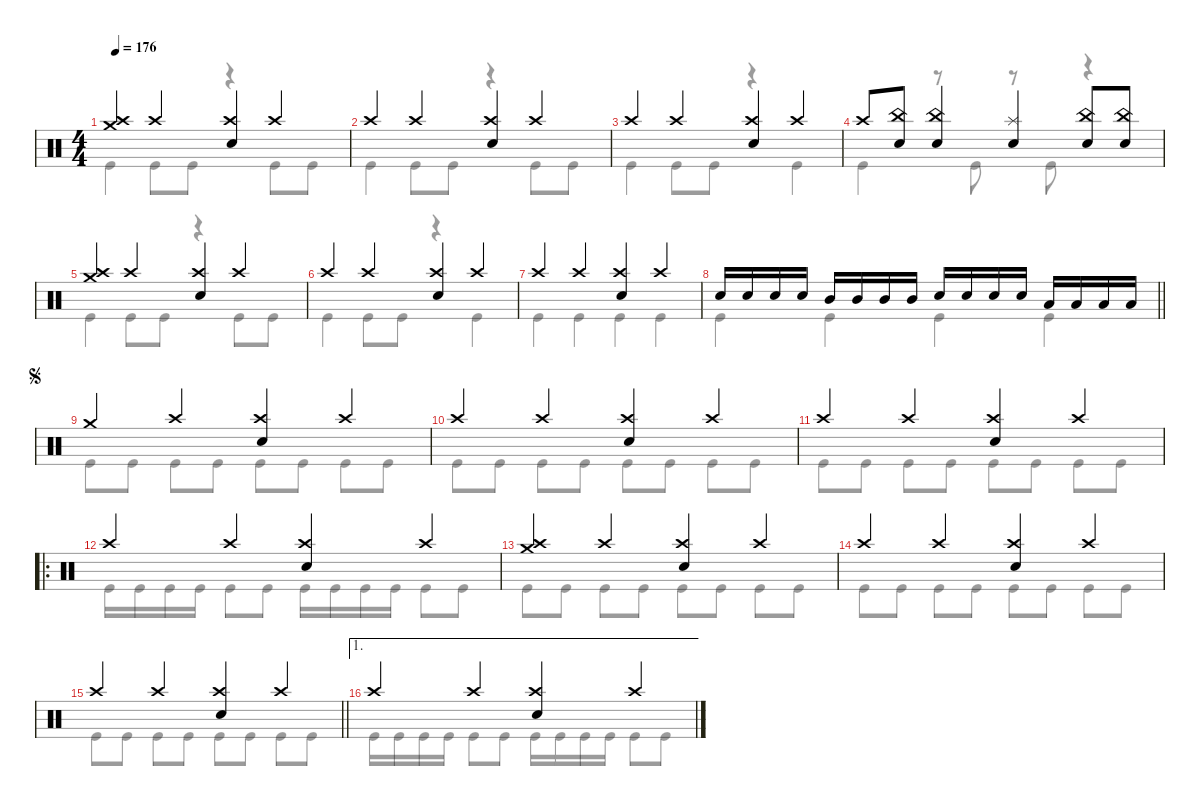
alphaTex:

\defaultSystemsLayout 4
\hideDynamics
\bracketExtendMode nobrackets
\singleTrackTrackNamePolicy hidden
\multiTrackTrackNamePolicy hidden
\firstSystemTrackNameMode fullname
\firstSystemTrackNameOrientation horizontal
\otherSystemsTrackNameOrientation horizontal
\track ("Drums" "drm.") {instrument percussion}
\staff {score}
\articulation defaults
\voice
\ts (4 4)
\tempo 176
\clef neutral
\ks c
("Crash medium (hit)" "Crash high (hit)").4{dy f beam Up} "Crash high (hit)".4{beam Up} ("Crash high (hit)" "Snare (hit) 2").4{beam Up} "Crash high (hit)".4{beam Up} |
"Crash high (hit)".4{beam Up} "Crash high (hit)".4{beam Up} ("Crash high (hit)" "Snare (hit) 2").4{beam Up} "Crash high (hit)".4{beam Up} |
"Crash high (hit)".4{beam Up} "Crash high (hit)".4{beam Up} ("Crash high (hit)" "Snare (hit) 2").4{beam Up} "Crash high (hit)".4{beam Up} |
"Crash high (hit)".8{beam Up} ("Snare (hit) 2" "China (hit)").8{beam Up} ("Snare (hit) 2" "China (hit)").4{beam Up} ("Snare (hit) 2" "Splash (hit)").4{beam Up} ("Snare (hit) 2" "China (hit)").8{beam Up} ("Snare (hit) 2" "China (hit)").8{beam Up} |
("Crash medium (hit)" "Crash high (hit)").4{beam Up} "Crash high (hit)".4{beam Up} ("Crash high (hit)" "Snare (hit) 2").4{beam Up} "Crash high (hit)".4{beam Up} |
"Crash high (hit)".4{beam Up} "Crash high (hit)".4{beam Up} ("Crash high (hit)" "Snare (hit) 2").4{beam Up} "Crash high (hit)".4{beam Up} |
"Crash high (hit)".4{beam Up} "Crash high (hit)".4{beam Up} ("Crash high (hit)" "Snare (hit) 2").4{beam Up} "Crash high (hit)".4{beam Up} |
\barLineRight lightlight "Snare (hit) 2".16{beam Up} "Snare (hit) 2".16{beam Up} "Snare (hit) 2".16{beam Up} "Snare (hit) 2".16{beam Up} "Mid Tom (hit)".16{beam Up} "Mid Tom (hit)".16{beam Up} "Mid Tom (hit)".16{beam Up} "Mid Tom (hit)".16{beam Up} "Snare (hit) 2".16{beam Up} "Snare (hit) 2".16{beam Up} "Snare (hit) 2".16{beam Up} "Snare (hit) 2".16{beam Up} "Low Tom (hit)".16{beam Up} "Low Tom (hit)".16{beam Up} "Low Tom (hit)".16{beam Up} "Low Tom (hit)".16{beam Up}
|
\jump segno "Crash medium (hit)".4{beam Up} "Crash high (hit)".4{beam Up}
("Crash high (hit)" "Snare (hit) 2").4{beam Up} "Crash high (hit)".4{beam Up} |
"Crash high (hit)".4{beam Up} "Crash high (hit)".4{beam Up} ("Crash high (hit)" "Snare (hit) 2").4{beam Up} "Crash high (hit)".4{beam Up} |
"Crash high (hit)".4{beam Up} "Crash high (hit)".4{beam Up} ("Crash high (hit)" "Snare (hit) 2").4{beam Up} "Crash high (hit)".4{beam Up} |
\ro "Crash high (hit)".4{beam Up} "Crash high (hit)".4{beam Up}
("Crash high (hit)" "Snare (hit) 2").4{beam Up} "Crash high (hit)".4{beam Up} |
("Crash medium (hit)" "Crash high (hit)").4{beam Up} "Crash high (hit)".4{beam Up} ("Crash high (hit)" "Snare (hit) 2").4{beam Up} "Crash high (hit)".4{beam Up} |
"Crash high (hit)".4{beam Up} "Crash high (hit)".4{beam Up} ("Crash high (hit)" "Snare (hit) 2").4{beam Up} "Crash high (hit)".4{beam Up} |
\barLineRight lightlight "Crash high (hit)".4{beam Up} "Crash high (hit)".4{beam Up}
("Crash high (hit)" "Snare (hit) 2").4{beam Up} "Crash high (hit)".4{beam Up} |
\ae 1 "Crash high (hit)".4{beam Up} "Crash high (hit)".4{beam Up}
("Crash high (hit)" "Snare (hit) 2").4{beam Up} "Crash high (hit)".4{beam Up}
\voice
\clef neutral
\ottava regular
\simile none
\ks c "Kick (hit)".4{dy f beam Down} "Kick (hit)".8{beam Down} "Kick (hit)".8{beam Down}
r.4{beam Down} "Kick (hit)".8{beam Down} "Kick (hit)".8{beam Down} |
"Kick (hit)".4{beam Down} "Kick (hit)".8{beam Down} "Kick (hit)".8{beam Down} r.4{beam Down} "Kick (hit)".8{beam Down} "Kick (hit)".8{beam Down} |
"Kick (hit)".4{beam Down} "Kick (hit)".8{beam Down} "Kick (hit)".8{beam Down} r.4{beam Down} "Kick (hit)".4{beam Down} |
"Kick (hit)".4{beam Down} r.8{beam Down} "Kick (hit)".8{beam Down} r.8{beam Down} "Kick (hit)".8{beam Down} r.4{beam Down} |
"Kick (hit)".4{beam Down} "Kick (hit)".8{beam Down} "Kick (hit)".8{beam Down} r.4{beam Down} "Kick (hit)".8{beam Down} "Kick (hit)".8{beam Down} |
"Kick (hit)".4{beam Down} "Kick (hit)".8{beam Down} "Kick (hit)".8{beam Down} r.4{beam Down} "Kick (hit)".4{beam Down} |
"Kick (hit)".4{beam Down} "Kick (hit)".4{beam Down} "Kick (hit)".4{beam Down} "Kick (hit)".4{beam Down} |
\barLineRight lightlight "Kick (hit)".4{beam Down} "Kick (hit)".4{beam Down} "Kick (hit)".4{beam Down} "Kick (hit)".4{beam Down}
|
"Kick (hit)".8{beam Down} "Kick (hit)".8{beam Down} "Kick (hit)".8{beam Down} "Kick (hit)".8{beam Down} "Kick (hit)".8{beam Down} "Kick (hit)".8{beam Down} "Kick (hit)".8{beam Down} "Kick (hit)".8{beam Down} |
"Kick (hit)".8{beam Down} "Kick (hit)".8{beam Down} "Kick (hit)".8{beam Down} "Kick (hit)".8{beam Down} "Kick (hit)".8{beam Down} "Kick (hit)".8{beam Down} "Kick (hit)".8{beam Down} "Kick (hit)".8{beam Down} |
"Kick (hit)".8{beam Down} "Kick (hit)".8{beam Down} "Kick (hit)".8{beam Down} "Kick (hit)".8{beam Down} "Kick (hit)".8{beam Down} "Kick (hit)".8{beam Down} "Kick (hit)".8{beam Down} "Kick (hit)".8{beam Down} |
"Kick (hit)".16{beam Down} "Kick (hit)".16{beam Down} "Kick (hit)".16{beam Down} "Kick (hit)".16{beam Down} "Kick (hit)".8{beam Down} "Kick (hit)".8{beam Down} "Kick (hit)".16{beam Down} "Kick (hit)".16{beam Down} "Kick (hit)".16{beam Down} "Kick (hit)".16{beam Down} "Kick (hit)".8{beam Down} "Kick (hit)".8{beam Down} |
"Kick (hit)".8{beam Down} "Kick (hit)".8{beam Down} "Kick (hit)".8{beam Down} "Kick (hit)".8{beam Down} "Kick (hit)".8{beam Down} "Kick (hit)".8{beam Down} "Kick (hit)".8{beam Down} "Kick (hit)".8{beam Down} |
"Kick (hit)".8{beam Down} "Kick (hit)".8{beam Down} "Kick (hit)".8{beam Down} "Kick (hit)".8{beam Down} "Kick (hit)".8{beam Down} "Kick (hit)".8{beam Down} "Kick (hit)".8{beam Down} "Kick (hit)".8{beam Down} |
\barLineRight lightlight "Kick (hit)".8{beam Down} "Kick (hit)".8{beam Down} "Kick (hit)".8{beam Down} "Kick (hit)".8{beam Down} "Kick (hit)".8{beam Down} "Kick (hit)".8{beam Down} "Kick (hit)".8{beam Down} "Kick (hit)".8{beam Down}
|
"Kick (hit)".16{beam Down} "Kick (hit)".16{beam Down} "Kick (hit)".16{beam Down} "Kick (hit)".16{beam Down} "Kick (hit)".8{beam Down} "Kick (hit)".8{beam Down} "Kick (hit)".16{beam Down} "Kick (hit)".16{beam Down} "Kick (hit)".16{beam Down} "Kick (hit)".16{beam Down} "Kick (hit)".8{beam Down} "Kick (hit)".8{beam Down}
